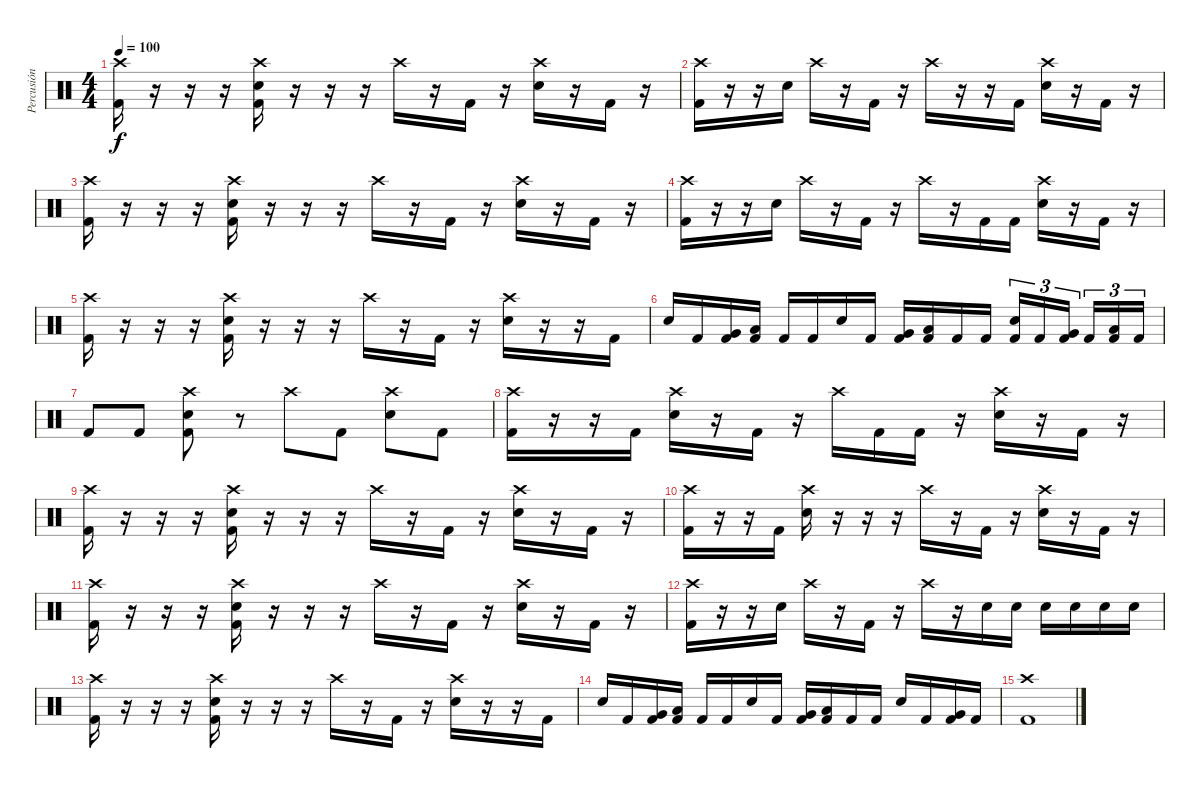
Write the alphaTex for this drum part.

\track ("Percusión" "Percusión") {instrument percussion}
\staff {score}
\articulation defaults
\ts (4 4)
\tempo 100
\clef neutral
\ks c
("Crash high (hit)" "Kick (hit) 2").16{dy f} r.16 r.16 r.16 ("Crash high (hit)" "Electric Snare (hit)" "Kick (hit) 2").16 r.16 r.16 r.16 "Crash high (hit)".16 r.16 "Kick (hit) 2".16 r.16 ("Crash high (hit)" "Electric Snare (hit)").16 r.16 "Kick (hit) 2".16 r.16 |
("Crash high (hit)" "Kick (hit) 2").16 r.16 r.16 "Electric Snare (hit)".16 "Crash high (hit)".16 r.16 "Kick (hit) 2".16 r.16 "Crash high (hit)".16 r.16 r.16 "Kick (hit) 2".16 ("Crash high (hit)" "Electric Snare (hit)").16 r.16 "Kick (hit) 2".16 r.16 |
("Crash high (hit)" "Kick (hit) 2").16 r.16 r.16 r.16 ("Crash high (hit)" "Electric Snare (hit)" "Kick (hit) 2").16 r.16 r.16 r.16 "Crash high (hit)".16 r.16 "Kick (hit) 2".16 r.16 ("Crash high (hit)" "Electric Snare (hit)").16 r.16 "Kick (hit) 2".16 r.16 |
("Crash high (hit)" "Kick (hit) 2").16 r.16 r.16 "Electric Snare (hit)".16 "Crash high (hit)".16 r.16 "Kick (hit) 2".16 r.16 "Crash high (hit)".16 r.16 "Kick (hit) 2".16 "Kick (hit) 2".16 ("Crash high (hit)" "Electric Snare (hit)").16 r.16 "Kick (hit) 2".16 r.16 |
("Crash high (hit)" "Kick (hit) 2").16 r.16 r.16 r.16 ("Crash high (hit)" "Electric Snare (hit)" "Kick (hit) 2").16 r.16 r.16 r.16 "Crash high (hit)".16 r.16 "Kick (hit) 2".16 r.16 ("Crash high (hit)" "Electric Snare (hit)").16 r.16 r.16 "Kick (hit) 2".16 |
"Electric Snare (hit)".16 "Kick (hit) 2".16 ("Very Low Tom (hit)" "Kick (hit) 2").16 ("Low Floor Tom (hit)" "Kick (hit) 2").16 "Kick (hit) 2".16 "Kick (hit) 2".16 "Electric Snare (hit)".16 "Kick (hit) 2".16 ("Very Low Tom (hit)" "Kick (hit) 2").16 ("Low Floor Tom (hit)" "Kick (hit) 2").16 "Kick (hit) 2".16 "Kick (hit) 2".16 ("Electric Snare (hit)" "Kick (hit) 2").16{tu (3 2)} "Kick (hit) 2".16{tu (3 2)} ("Very Low Tom (hit)" "Kick (hit) 2").16{tu (3 2) beam splitsecondary} "Kick (hit) 2".16{tu (3 2)} ("Low Floor Tom (hit)" "Kick (hit) 2").16{tu (3 2)} "Kick (hit) 2".16{tu (3 2)} |
"Kick (hit) 2".8 "Kick (hit) 2".8 ("Crash high (hit)" "Electric Snare (hit)" "Kick (hit) 2").8 r.8 "Crash high (hit)".8 "Kick (hit) 2".8 ("Crash high (hit)" "Electric Snare (hit)").8 "Kick (hit) 2".8 |
("Crash high (hit)" "Kick (hit) 2").16 r.16 r.16 "Kick (hit) 2".16 ("Crash high (hit)" "Electric Snare (hit)").16 r.16 "Kick (hit) 2".16 r.16 "Crash high (hit)".16 "Kick (hit) 2".16 "Kick (hit) 2".16 r.16 ("Crash high (hit)" "Electric Snare (hit)").16 r.16 "Kick (hit) 2".16 r.16 |
("Crash high (hit)" "Kick (hit) 2").16 r.16 r.16 r.16 ("Crash high (hit)" "Electric Snare (hit)" "Kick (hit) 2").16 r.16 r.16 r.16 "Crash high (hit)".16 r.16 "Kick (hit) 2".16 r.16 ("Crash high (hit)" "Electric Snare (hit)").16 r.16 "Kick (hit) 2".16 r.16 |
("Crash high (hit)" "Kick (hit) 2").16 r.16 r.16 "Kick (hit) 2".16 ("Crash high (hit)" "Electric Snare (hit)").16 r.16 r.16 r.16 "Crash high (hit)".16 r.16 "Kick (hit) 2".16 r.16 ("Crash high (hit)" "Electric Snare (hit)").16 r.16 "Kick (hit) 2".16 r.16 |
("Crash high (hit)" "Kick (hit) 2").16 r.16 r.16 r.16 ("Crash high (hit)" "Electric Snare (hit)" "Kick (hit) 2").16 r.16 r.16 r.16 "Crash high (hit)".16 r.16 "Kick (hit) 2".16 r.16 ("Crash high (hit)" "Electric Snare (hit)").16 r.16 "Kick (hit) 2".16 r.16 |
("Crash high (hit)" "Kick (hit) 2").16 r.16 r.16 "Electric Snare (hit)".16 "Crash high (hit)".16 r.16 "Kick (hit) 2".16 r.16 "Crash high (hit)".16 r.16 "Electric Snare (hit)".16 "Electric Snare (hit)".16 "Electric Snare (hit)".16 "Electric Snare (hit)".16 "Electric Snare (hit)".16 "Electric Snare (hit)".16 |
("Crash high (hit)" "Kick (hit) 2").16 r.16 r.16 r.16 ("Crash high (hit)" "Electric Snare (hit)" "Kick (hit) 2").16 r.16 r.16 r.16 "Crash high (hit)".16 r.16 "Kick (hit) 2".16 r.16 ("Crash high (hit)" "Electric Snare (hit)").16 r.16 r.16 "Kick (hit) 2".16 |
"Electric Snare (hit)".16 "Kick (hit) 2".16 ("Very Low Tom (hit)" "Kick (hit) 2").16 ("Low Floor Tom (hit)" "Kick (hit) 2").16 "Kick (hit) 2".16 "Kick (hit) 2".16 "Electric Snare (hit)".16 "Kick (hit) 2".16 ("Very Low Tom (hit)" "Kick (hit) 2").16 ("Low Floor Tom (hit)" "Kick (hit) 2").16 "Kick (hit) 2".16 "Kick (hit) 2".16 "Electric Snare (hit)".16 "Kick (hit) 2".16 ("Very Low Tom (hit)" "Kick (hit) 2").16 "Kick (hit) 2".16 |
("Crash high (hit)" "Kick (hit) 2").1
